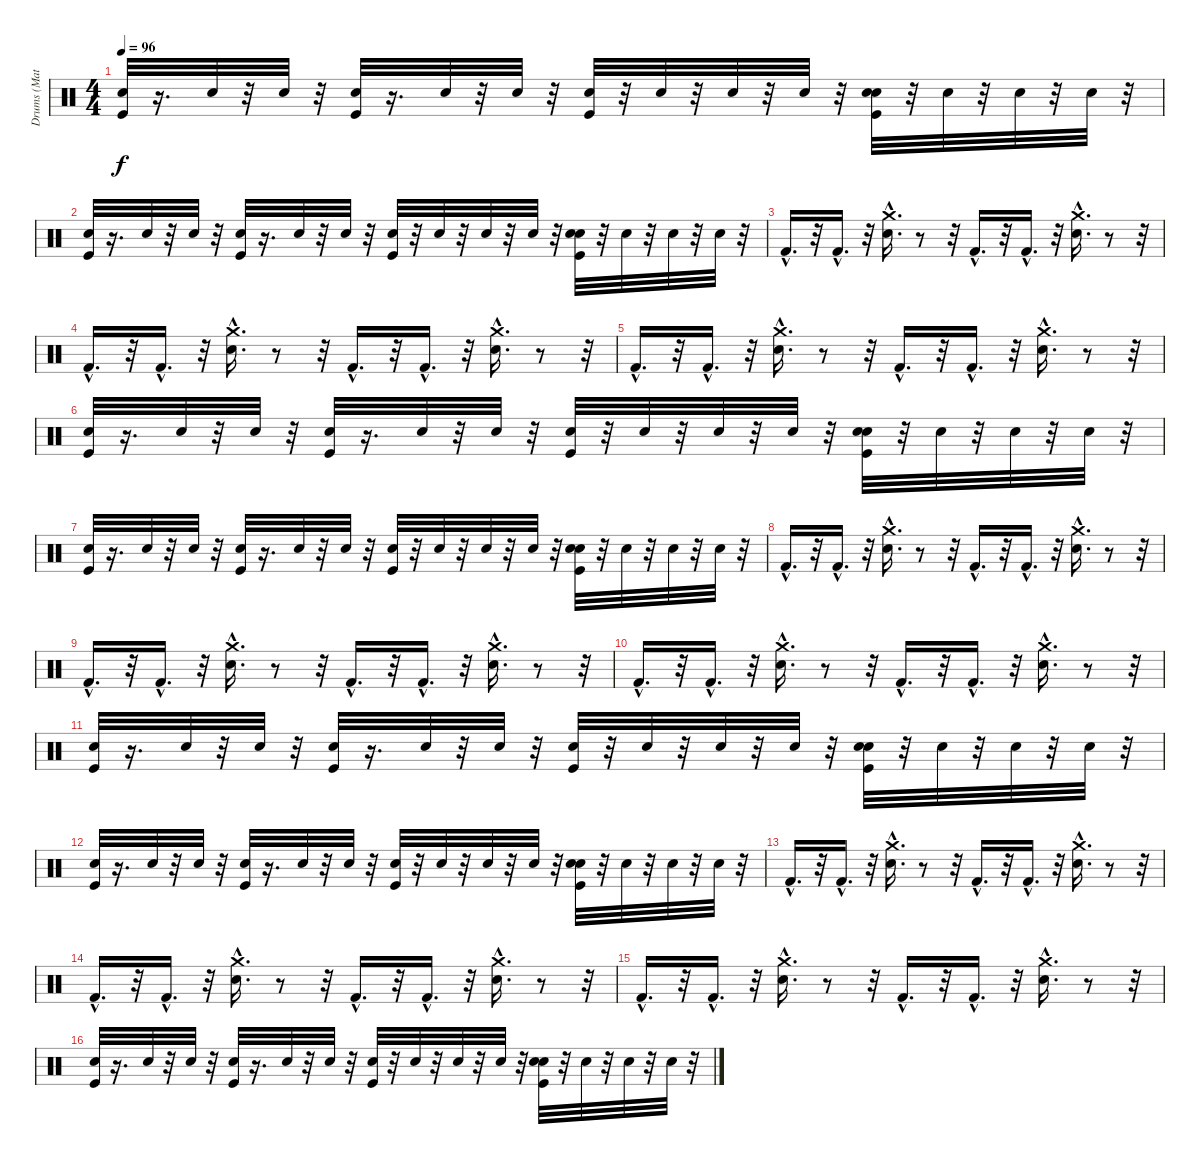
\track ("Drums (Matt)" "Drums (Mat") {instrument percussion}
\staff {score}
\articulation defaults
\ts (4 4)
\tempo 96
\clef neutral
\ks c
("Snare (hit) 2" "Kick (hit)").32{dy f} r.16{d} "Snare (hit) 2".32 r.32 "Snare (hit) 2".32 r.32 ("Snare (hit) 2" "Kick (hit)").32 r.16{d} "Snare (hit) 2".32 r.32 "Snare (hit) 2".32 r.32 ("Snare (hit) 2" "Kick (hit)").32 r.32 "Snare (hit) 2".32 r.32 "Snare (hit) 2".32 r.32 "Snare (hit) 2".32 r.32 ("Electric Snare (hit)" "Snare (hit) 2" "Kick (hit)").32 r.32 "Snare (hit) 2".32 r.32 "Snare (hit) 2".32 r.32 "Snare (hit) 2".32 r.32 |
("Snare (hit) 2" "Kick (hit)").32 r.16{d} "Snare (hit) 2".32 r.32 "Snare (hit) 2".32 r.32 ("Snare (hit) 2" "Kick (hit)").32 r.16{d} "Snare (hit) 2".32 r.32 "Snare (hit) 2".32 r.32 ("Snare (hit) 2" "Kick (hit)").32 r.32 "Snare (hit) 2".32 r.32 "Snare (hit) 2".32 r.32 "Snare (hit) 2".32 r.32 ("Electric Snare (hit)" "Snare (hit) 2" "Kick (hit)").32 r.32 "Snare (hit) 2".32 r.32 "Snare (hit) 2".32 r.32 "Snare (hit) 2".32 r.32 |
"Kick (hit) 2"{hac}.16{d} r.32 "Kick (hit) 2"{hac}.16{d} r.32 ("Snare (hit) 2"{hac} "Crash medium (hit)"{hac}).16{d} r.8 r.32 "Kick (hit) 2"{hac}.16{d} r.32 "Kick (hit) 2"{hac}.16{d} r.32 ("Snare (hit) 2"{hac} "Crash medium (hit)"{hac}).16{d} r.8 r.32 |
"Kick (hit) 2"{hac}.16{d} r.32 "Kick (hit) 2"{hac}.16{d} r.32 ("Snare (hit) 2"{hac} "Crash medium (hit)"{hac}).16{d} r.8 r.32 "Kick (hit) 2"{hac}.16{d} r.32 "Kick (hit) 2"{hac}.16{d} r.32 ("Snare (hit) 2"{hac} "Crash medium (hit)"{hac}).16{d} r.8 r.32 |
"Kick (hit) 2"{hac}.16{d} r.32 "Kick (hit) 2"{hac}.16{d} r.32 ("Snare (hit) 2"{hac} "Crash medium (hit)"{hac}).16{d} r.8 r.32 "Kick (hit) 2"{hac}.16{d} r.32 "Kick (hit) 2"{hac}.16{d} r.32 ("Snare (hit) 2"{hac} "Crash medium (hit)"{hac}).16{d} r.8 r.32 |
("Snare (hit) 2" "Kick (hit)").32 r.16{d} "Snare (hit) 2".32 r.32 "Snare (hit) 2".32 r.32 ("Snare (hit) 2" "Kick (hit)").32 r.16{d} "Snare (hit) 2".32 r.32 "Snare (hit) 2".32 r.32 ("Snare (hit) 2" "Kick (hit)").32 r.32 "Snare (hit) 2".32 r.32 "Snare (hit) 2".32 r.32 "Snare (hit) 2".32 r.32 ("Electric Snare (hit)" "Snare (hit) 2" "Kick (hit)").32 r.32 "Snare (hit) 2".32 r.32 "Snare (hit) 2".32 r.32 "Snare (hit) 2".32 r.32 |
("Snare (hit) 2" "Kick (hit)").32 r.16{d} "Snare (hit) 2".32 r.32 "Snare (hit) 2".32 r.32 ("Snare (hit) 2" "Kick (hit)").32 r.16{d} "Snare (hit) 2".32 r.32 "Snare (hit) 2".32 r.32 ("Snare (hit) 2" "Kick (hit)").32 r.32 "Snare (hit) 2".32 r.32 "Snare (hit) 2".32 r.32 "Snare (hit) 2".32 r.32 ("Electric Snare (hit)" "Snare (hit) 2" "Kick (hit)").32 r.32 "Snare (hit) 2".32 r.32 "Snare (hit) 2".32 r.32 "Snare (hit) 2".32 r.32 |
"Kick (hit) 2"{hac}.16{d} r.32 "Kick (hit) 2"{hac}.16{d} r.32 ("Snare (hit) 2"{hac} "Crash medium (hit)"{hac}).16{d} r.8 r.32 "Kick (hit) 2"{hac}.16{d} r.32 "Kick (hit) 2"{hac}.16{d} r.32 ("Snare (hit) 2"{hac} "Crash medium (hit)"{hac}).16{d} r.8 r.32 |
"Kick (hit) 2"{hac}.16{d} r.32 "Kick (hit) 2"{hac}.16{d} r.32 ("Snare (hit) 2"{hac} "Crash medium (hit)"{hac}).16{d} r.8 r.32 "Kick (hit) 2"{hac}.16{d} r.32 "Kick (hit) 2"{hac}.16{d} r.32 ("Snare (hit) 2"{hac} "Crash medium (hit)"{hac}).16{d} r.8 r.32 |
"Kick (hit) 2"{hac}.16{d} r.32 "Kick (hit) 2"{hac}.16{d} r.32 ("Snare (hit) 2"{hac} "Crash medium (hit)"{hac}).16{d} r.8 r.32 "Kick (hit) 2"{hac}.16{d} r.32 "Kick (hit) 2"{hac}.16{d} r.32 ("Snare (hit) 2"{hac} "Crash medium (hit)"{hac}).16{d} r.8 r.32 |
("Snare (hit) 2" "Kick (hit)").32 r.16{d} "Snare (hit) 2".32 r.32 "Snare (hit) 2".32 r.32 ("Snare (hit) 2" "Kick (hit)").32 r.16{d} "Snare (hit) 2".32 r.32 "Snare (hit) 2".32 r.32 ("Snare (hit) 2" "Kick (hit)").32 r.32 "Snare (hit) 2".32 r.32 "Snare (hit) 2".32 r.32 "Snare (hit) 2".32 r.32 ("Electric Snare (hit)" "Snare (hit) 2" "Kick (hit)").32 r.32 "Snare (hit) 2".32 r.32 "Snare (hit) 2".32 r.32 "Snare (hit) 2".32 r.32 |
("Snare (hit) 2" "Kick (hit)").32 r.16{d} "Snare (hit) 2".32 r.32 "Snare (hit) 2".32 r.32 ("Snare (hit) 2" "Kick (hit)").32 r.16{d} "Snare (hit) 2".32 r.32 "Snare (hit) 2".32 r.32 ("Snare (hit) 2" "Kick (hit)").32 r.32 "Snare (hit) 2".32 r.32 "Snare (hit) 2".32 r.32 "Snare (hit) 2".32 r.32 ("Electric Snare (hit)" "Snare (hit) 2" "Kick (hit)").32 r.32 "Snare (hit) 2".32 r.32 "Snare (hit) 2".32 r.32 "Snare (hit) 2".32 r.32 |
"Kick (hit) 2"{hac}.16{d} r.32 "Kick (hit) 2"{hac}.16{d} r.32 ("Snare (hit) 2"{hac} "Crash medium (hit)"{hac}).16{d} r.8 r.32 "Kick (hit) 2"{hac}.16{d} r.32 "Kick (hit) 2"{hac}.16{d} r.32 ("Snare (hit) 2"{hac} "Crash medium (hit)"{hac}).16{d} r.8 r.32 |
"Kick (hit) 2"{hac}.16{d} r.32 "Kick (hit) 2"{hac}.16{d} r.32 ("Snare (hit) 2"{hac} "Crash medium (hit)"{hac}).16{d} r.8 r.32 "Kick (hit) 2"{hac}.16{d} r.32 "Kick (hit) 2"{hac}.16{d} r.32 ("Snare (hit) 2"{hac} "Crash medium (hit)"{hac}).16{d} r.8 r.32 |
"Kick (hit) 2"{hac}.16{d} r.32 "Kick (hit) 2"{hac}.16{d} r.32 ("Snare (hit) 2"{hac} "Crash medium (hit)"{hac}).16{d} r.8 r.32 "Kick (hit) 2"{hac}.16{d} r.32 "Kick (hit) 2"{hac}.16{d} r.32 ("Snare (hit) 2"{hac} "Crash medium (hit)"{hac}).16{d} r.8 r.32 |
("Snare (hit) 2" "Kick (hit)").32 r.16{d} "Snare (hit) 2".32 r.32 "Snare (hit) 2".32 r.32 ("Snare (hit) 2" "Kick (hit)").32 r.16{d} "Snare (hit) 2".32 r.32 "Snare (hit) 2".32 r.32 ("Snare (hit) 2" "Kick (hit)").32 r.32 "Snare (hit) 2".32 r.32 "Snare (hit) 2".32 r.32 "Snare (hit) 2".32 r.32 ("Electric Snare (hit)" "Snare (hit) 2" "Kick (hit)").32 r.32 "Snare (hit) 2".32 r.32 "Snare (hit) 2".32 r.32 "Snare (hit) 2".32 r.32
